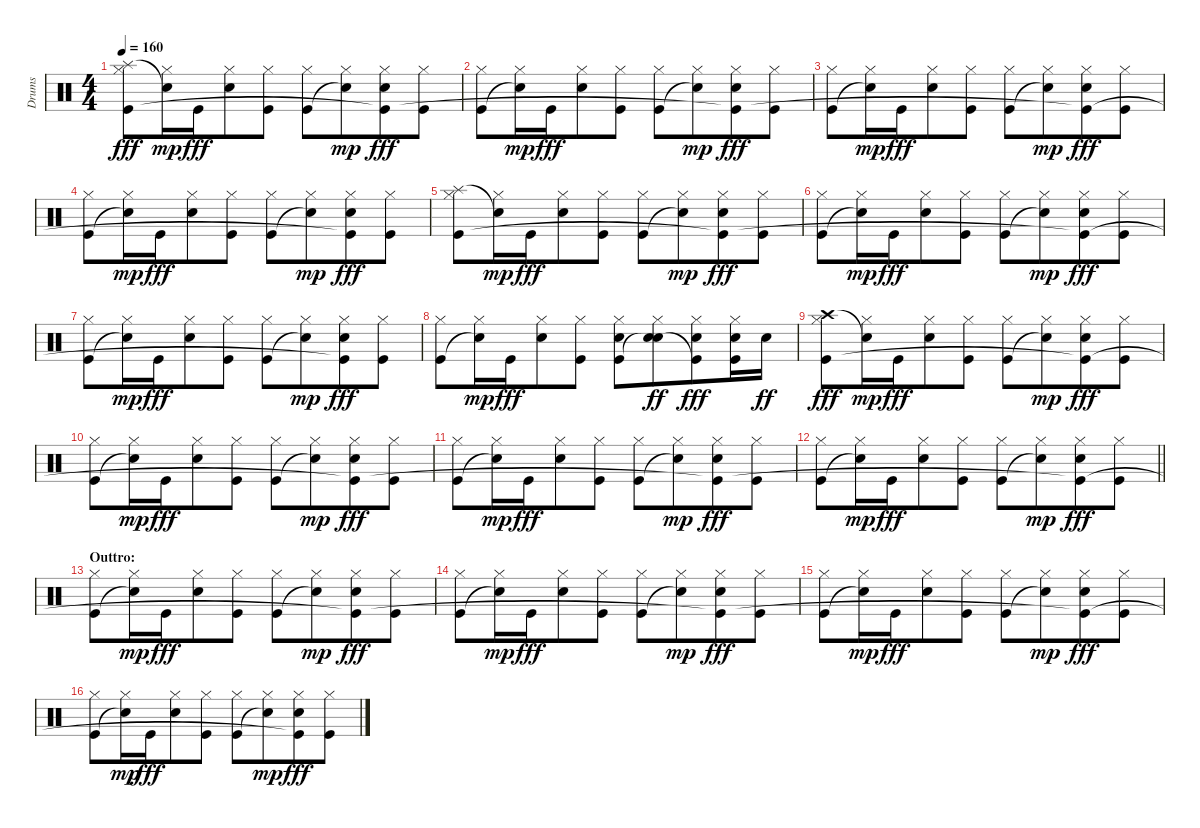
\track ("Drums" "Drums") {instrument percussion}
\staff {score}
\articulation defaults
\ts (4 4)
\tempo 160
\clef neutral
\ks c
("Hi-Hat (closed)" "Splash (hit)" "Kick (hit)").8{dy fff} ("Hi-Hat (closed)" "Snare (hit)"{t}).16{dy mp} "Kick (hit)".16{dy fff beam merge} ("Hi-Hat (closed)" "Snare (hit) 2").8 ("Hi-Hat (closed)" "Kick (hit)").8 ("Hi-Hat (closed)" "Kick (hit)").8 ("Hi-Hat (closed)" "Snare (hit)"{t}).8{dy mp beam merge} ("Hi-Hat (closed)" "Snare (hit) 2" "Kick (hit)"{t}).8{dy fff} ("Hi-Hat (closed)" "Kick (hit)").8 |
("Hi-Hat (closed)" "Kick (hit)").8 ("Hi-Hat (closed)" "Snare (hit)"{t}).16{dy mp} "Kick (hit)".16{dy fff beam merge} ("Hi-Hat (closed)" "Snare (hit) 2").8 ("Hi-Hat (closed)" "Kick (hit)").8 ("Hi-Hat (closed)" "Kick (hit)").8 ("Hi-Hat (closed)" "Snare (hit)"{t}).8{dy mp beam merge} ("Hi-Hat (closed)" "Snare (hit) 2" "Kick (hit)"{t}).8{dy fff} ("Hi-Hat (closed)" "Kick (hit)").8 |
("Hi-Hat (closed)" "Kick (hit)").8 ("Hi-Hat (closed)" "Snare (hit)"{t}).16{dy mp} "Kick (hit)".16{dy fff beam merge} ("Hi-Hat (closed)" "Snare (hit) 2").8 ("Hi-Hat (closed)" "Kick (hit)").8 ("Hi-Hat (closed)" "Kick (hit)").8 ("Hi-Hat (closed)" "Snare (hit)"{t}).8{dy mp beam merge} ("Hi-Hat (closed)" "Snare (hit) 2" "Kick (hit)"{t}).8{dy fff} ("Hi-Hat (closed)" "Kick (hit)").8 |
("Hi-Hat (closed)" "Kick (hit)").8 ("Hi-Hat (closed)" "Snare (hit)"{t}).16{dy mp} "Kick (hit)".16{dy fff beam merge} ("Hi-Hat (closed)" "Snare (hit) 2").8 ("Hi-Hat (closed)" "Kick (hit)").8 ("Hi-Hat (closed)" "Kick (hit)").8 ("Hi-Hat (closed)" "Snare (hit)"{t}).8{dy mp beam merge} ("Hi-Hat (closed)" "Snare (hit) 2" "Kick (hit)"{t}).8{dy fff} ("Hi-Hat (closed)" "Kick (hit)").8 |
("Hi-Hat (closed)" "Splash (hit)" "Kick (hit)").8 ("Hi-Hat (closed)" "Snare (hit)"{t}).16{dy mp} "Kick (hit)".16{dy fff beam merge} ("Hi-Hat (closed)" "Snare (hit) 2").8 ("Hi-Hat (closed)" "Kick (hit)").8 ("Hi-Hat (closed)" "Kick (hit)").8 ("Hi-Hat (closed)" "Snare (hit)"{t}).8{dy mp beam merge} ("Hi-Hat (closed)" "Snare (hit) 2" "Kick (hit)"{t}).8{dy fff} ("Hi-Hat (closed)" "Kick (hit)").8 |
("Hi-Hat (closed)" "Kick (hit)").8 ("Hi-Hat (closed)" "Snare (hit)"{t}).16{dy mp} "Kick (hit)".16{dy fff beam merge} ("Hi-Hat (closed)" "Snare (hit) 2").8 ("Hi-Hat (closed)" "Kick (hit)").8 ("Hi-Hat (closed)" "Kick (hit)").8 ("Hi-Hat (closed)" "Snare (hit)"{t}).8{dy mp beam merge} ("Hi-Hat (closed)" "Snare (hit) 2" "Kick (hit)"{t}).8{dy fff} ("Hi-Hat (closed)" "Kick (hit)").8 |
("Hi-Hat (closed)" "Kick (hit)").8 ("Hi-Hat (closed)" "Snare (hit)"{t}).16{dy mp} "Kick (hit)".16{dy fff beam merge} ("Hi-Hat (closed)" "Snare (hit) 2").8 ("Hi-Hat (closed)" "Kick (hit)").8 ("Hi-Hat (closed)" "Kick (hit)").8 ("Hi-Hat (closed)" "Snare (hit)"{t}).8{dy mp beam merge} ("Hi-Hat (closed)" "Snare (hit) 2" "Kick (hit)"{t}).8{dy fff} ("Hi-Hat (closed)" "Kick (hit)").8 |
("Hi-Hat (closed)" "Kick (hit)").8 ("Hi-Hat (closed)" "Snare (hit)"{t}).16{dy mp} "Kick (hit)".16{dy fff beam merge} ("Hi-Hat (closed)" "Snare (hit) 2").8 ("Hi-Hat (closed)" "Kick (hit)").8 ("Hi-Hat (closed)" "Snare (hit) 2" "Kick (hit)").8 ("Hi-Hat (closed)" "Snare (hit) 2" "Snare (hit)"{t}).8{dy ff beam merge} ("Hi-Hat (closed)" "Snare (hit) 2" "Kick (hit)"{t}).8{dy fff} ("Hi-Hat (closed)" "Snare (hit) 2" "Kick (hit)").16 "Snare (hit) 2".16{dy ff} |
("Hi-Hat (closed)" "Crash high (hit)" "Kick (hit)").8{dy fff} ("Hi-Hat (closed)" "Snare (hit)"{t}).16{dy mp} "Kick (hit)".16{dy fff beam merge} ("Hi-Hat (closed)" "Snare (hit) 2").8 ("Hi-Hat (closed)" "Kick (hit)").8 ("Hi-Hat (closed)" "Kick (hit)").8 ("Hi-Hat (closed)" "Snare (hit)"{t}).8{dy mp beam merge} ("Hi-Hat (closed)" "Snare (hit) 2" "Kick (hit)"{t}).8{dy fff} ("Hi-Hat (closed)" "Kick (hit)").8 |
("Hi-Hat (closed)" "Kick (hit)").8 ("Hi-Hat (closed)" "Snare (hit)"{t}).16{dy mp} "Kick (hit)".16{dy fff beam merge} ("Hi-Hat (closed)" "Snare (hit) 2").8 ("Hi-Hat (closed)" "Kick (hit)").8 ("Hi-Hat (closed)" "Kick (hit)").8 ("Hi-Hat (closed)" "Snare (hit)"{t}).8{dy mp beam merge} ("Hi-Hat (closed)" "Snare (hit) 2" "Kick (hit)"{t}).8{dy fff} ("Hi-Hat (closed)" "Kick (hit)").8 |
("Hi-Hat (closed)" "Kick (hit)").8 ("Hi-Hat (closed)" "Snare (hit)"{t}).16{dy mp} "Kick (hit)".16{dy fff beam merge} ("Hi-Hat (closed)" "Snare (hit) 2").8 ("Hi-Hat (closed)" "Kick (hit)").8 ("Hi-Hat (closed)" "Kick (hit)").8 ("Hi-Hat (closed)" "Snare (hit)"{t}).8{dy mp beam merge} ("Hi-Hat (closed)" "Snare (hit) 2" "Kick (hit)"{t}).8{dy fff} ("Hi-Hat (closed)" "Kick (hit)").8 |
\barLineRight lightlight
("Hi-Hat (closed)" "Kick (hit)").8 ("Hi-Hat (closed)" "Snare (hit)"{t}).16{dy mp} "Kick (hit)".16{dy fff beam merge} ("Hi-Hat (closed)" "Snare (hit) 2").8 ("Hi-Hat (closed)" "Kick (hit)").8 ("Hi-Hat (closed)" "Kick (hit)").8 ("Hi-Hat (closed)" "Snare (hit)"{t}).8{dy mp beam merge} ("Hi-Hat (closed)" "Snare (hit) 2" "Kick (hit)"{t}).8{dy fff} ("Hi-Hat (closed)" "Kick (hit)").8 |
\section ("" "Outtro:")
("Hi-Hat (closed)" "Kick (hit)").8 ("Hi-Hat (closed)" "Snare (hit)"{t}).16{dy mp} "Kick (hit)".16{dy fff beam merge} ("Hi-Hat (closed)" "Snare (hit) 2").8 ("Hi-Hat (closed)" "Kick (hit)").8 ("Hi-Hat (closed)" "Kick (hit)").8 ("Hi-Hat (closed)" "Snare (hit)"{t}).8{dy mp beam merge} ("Hi-Hat (closed)" "Snare (hit) 2" "Kick (hit)"{t}).8{dy fff} ("Hi-Hat (closed)" "Kick (hit)").8 |
("Hi-Hat (closed)" "Kick (hit)").8 ("Hi-Hat (closed)" "Snare (hit)"{t}).16{dy mp} "Kick (hit)".16{dy fff beam merge} ("Hi-Hat (closed)" "Snare (hit) 2").8 ("Hi-Hat (closed)" "Kick (hit)").8 ("Hi-Hat (closed)" "Kick (hit)").8 ("Hi-Hat (closed)" "Snare (hit)"{t}).8{dy mp beam merge} ("Hi-Hat (closed)" "Snare (hit) 2" "Kick (hit)"{t}).8{dy fff} ("Hi-Hat (closed)" "Kick (hit)").8 |
("Hi-Hat (closed)" "Kick (hit)").8 ("Hi-Hat (closed)" "Snare (hit)"{t}).16{dy mp} "Kick (hit)".16{dy fff beam merge} ("Hi-Hat (closed)" "Snare (hit) 2").8 ("Hi-Hat (closed)" "Kick (hit)").8 ("Hi-Hat (closed)" "Kick (hit)").8 ("Hi-Hat (closed)" "Snare (hit)"{t}).8{dy mp beam merge} ("Hi-Hat (closed)" "Snare (hit) 2" "Kick (hit)"{t}).8{dy fff} ("Hi-Hat (closed)" "Kick (hit)").8 |
("Hi-Hat (closed)" "Kick (hit)").8 ("Hi-Hat (closed)" "Snare (hit)"{t}).16{dy mp} "Kick (hit)".16{dy fff beam merge} ("Hi-Hat (closed)" "Snare (hit) 2").8 ("Hi-Hat (closed)" "Kick (hit)").8 ("Hi-Hat (closed)" "Kick (hit)").8 ("Hi-Hat (closed)" "Snare (hit)"{t}).8{dy mp beam merge} ("Hi-Hat (closed)" "Snare (hit) 2" "Kick (hit)"{t}).8{dy fff} ("Hi-Hat (closed)" "Kick (hit)").8
